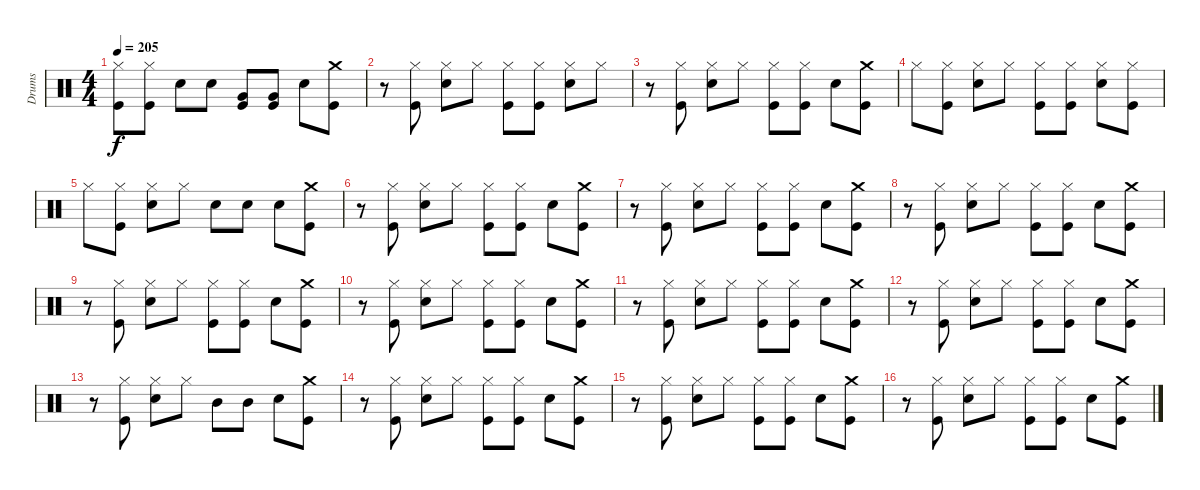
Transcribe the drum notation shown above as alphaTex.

\track ("Drums" "Drums") {instrument percussion}
\staff {score}
\articulation defaults
\ts (4 4)
\tempo 205
\clef neutral
\ks c
("Hi-Hat (closed)" "Kick (hit)").8{dy f} ("Hi-Hat (closed)" "Kick (hit)").8 "Electric Snare (hit)".8 "Electric Snare (hit)".8 ("Very Low Tom (hit)" "Kick (hit)").8 ("Very Low Tom (hit)" "Kick (hit)").8 "Electric Snare (hit)".8 ("Crash medium (hit)" "Kick (hit)").8 |
r.8 ("Hi-Hat (closed)" "Kick (hit)").8 ("Hi-Hat (closed)" "Electric Snare (hit)").8 "Hi-Hat (closed)".8 ("Hi-Hat (closed)" "Kick (hit)").8 ("Hi-Hat (closed)" "Kick (hit)").8 ("Hi-Hat (closed)" "Electric Snare (hit)").8 "Hi-Hat (closed)".8 |
r.8 ("Hi-Hat (closed)" "Kick (hit)").8 ("Hi-Hat (closed)" "Electric Snare (hit)").8 "Hi-Hat (closed)".8 ("Hi-Hat (closed)" "Kick (hit)").8 ("Hi-Hat (closed)" "Kick (hit)").8 "Electric Snare (hit)".8 ("Crash medium (hit)" "Kick (hit)").8 |
"Hi-Hat (closed)".8 ("Hi-Hat (closed)" "Kick (hit)").8 ("Hi-Hat (closed)" "Electric Snare (hit)").8 "Hi-Hat (closed)".8 ("Hi-Hat (closed)" "Kick (hit)").8 ("Hi-Hat (closed)" "Kick (hit)").8 ("Hi-Hat (closed)" "Electric Snare (hit)").8 ("Hi-Hat (closed)" "Kick (hit)").8 |
"Hi-Hat (closed)".8 ("Hi-Hat (closed)" "Kick (hit)").8 ("Hi-Hat (closed)" "Electric Snare (hit)").8 "Hi-Hat (closed)".8 "Electric Snare (hit)".8 "Electric Snare (hit)".8 "Electric Snare (hit)".8 ("Crash medium (hit)" "Kick (hit)").8 |
r.8 ("Hi-Hat (closed)" "Kick (hit)").8 ("Hi-Hat (closed)" "Electric Snare (hit)").8 "Hi-Hat (closed)".8 ("Hi-Hat (closed)" "Kick (hit)").8 ("Hi-Hat (closed)" "Kick (hit)").8 "Electric Snare (hit)".8 ("Crash medium (hit)" "Kick (hit)").8 |
r.8 ("Hi-Hat (closed)" "Kick (hit)").8 ("Hi-Hat (closed)" "Electric Snare (hit)").8 "Hi-Hat (closed)".8 ("Hi-Hat (closed)" "Kick (hit)").8 ("Hi-Hat (closed)" "Kick (hit)").8 "Electric Snare (hit)".8 ("Crash medium (hit)" "Kick (hit)").8 |
r.8 ("Hi-Hat (closed)" "Kick (hit)").8 ("Hi-Hat (closed)" "Electric Snare (hit)").8 "Hi-Hat (closed)".8 ("Hi-Hat (closed)" "Kick (hit)").8 ("Hi-Hat (closed)" "Kick (hit)").8 "Electric Snare (hit)".8 ("Crash medium (hit)" "Kick (hit)").8 |
r.8 ("Hi-Hat (closed)" "Kick (hit)").8 ("Hi-Hat (closed)" "Electric Snare (hit)").8 "Hi-Hat (closed)".8 ("Hi-Hat (closed)" "Kick (hit)").8 ("Hi-Hat (closed)" "Kick (hit)").8 "Electric Snare (hit)".8 ("Crash medium (hit)" "Kick (hit)").8 |
r.8 ("Hi-Hat (closed)" "Kick (hit)").8 ("Hi-Hat (closed)" "Electric Snare (hit)").8 "Hi-Hat (closed)".8 ("Hi-Hat (closed)" "Kick (hit)").8 ("Hi-Hat (closed)" "Kick (hit)").8 "Electric Snare (hit)".8 ("Crash medium (hit)" "Kick (hit)").8 |
r.8 ("Hi-Hat (closed)" "Kick (hit)").8 ("Hi-Hat (closed)" "Electric Snare (hit)").8 "Hi-Hat (closed)".8 ("Hi-Hat (closed)" "Kick (hit)").8 ("Hi-Hat (closed)" "Kick (hit)").8 "Electric Snare (hit)".8 ("Crash medium (hit)" "Kick (hit)").8 |
r.8 ("Hi-Hat (closed)" "Kick (hit)").8 ("Hi-Hat (closed)" "Electric Snare (hit)").8 "Hi-Hat (closed)".8 ("Hi-Hat (closed)" "Kick (hit)").8 ("Hi-Hat (closed)" "Kick (hit)").8 "Electric Snare (hit)".8 ("Crash medium (hit)" "Kick (hit)").8 |
r.8 ("Hi-Hat (closed)" "Kick (hit)").8 ("Hi-Hat (closed)" "Electric Snare (hit)").8 "Hi-Hat (closed)".8 "Mid Tom (hit)".8 "Mid Tom (hit)".8 "Electric Snare (hit)".8 ("Crash medium (hit)" "Kick (hit)").8 |
r.8 ("Hi-Hat (closed)" "Kick (hit)").8 ("Hi-Hat (closed)" "Electric Snare (hit)").8 "Hi-Hat (closed)".8 ("Hi-Hat (closed)" "Kick (hit)").8 ("Hi-Hat (closed)" "Kick (hit)").8 "Electric Snare (hit)".8 ("Crash medium (hit)" "Kick (hit)").8 |
r.8 ("Hi-Hat (closed)" "Kick (hit)").8 ("Hi-Hat (closed)" "Electric Snare (hit)").8 "Hi-Hat (closed)".8 ("Hi-Hat (closed)" "Kick (hit)").8 ("Hi-Hat (closed)" "Kick (hit)").8 "Electric Snare (hit)".8 ("Crash medium (hit)" "Kick (hit)").8 |
r.8 ("Hi-Hat (closed)" "Kick (hit)").8 ("Hi-Hat (closed)" "Electric Snare (hit)").8 "Hi-Hat (closed)".8 ("Hi-Hat (closed)" "Kick (hit)").8 ("Hi-Hat (closed)" "Kick (hit)").8 "Electric Snare (hit)".8 ("Crash medium (hit)" "Kick (hit)").8
